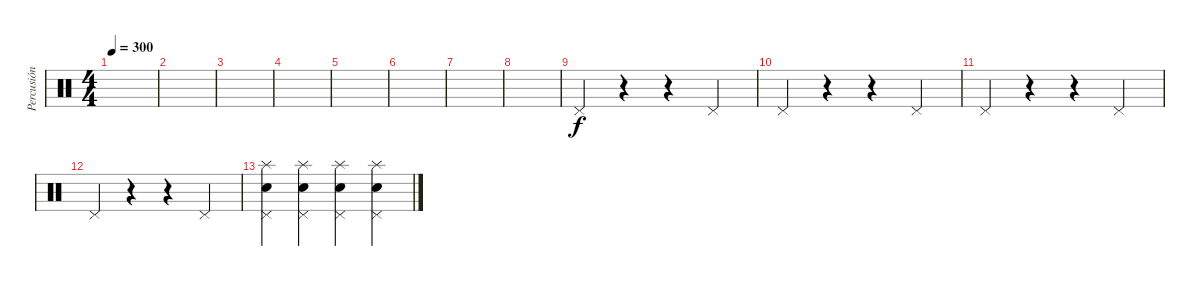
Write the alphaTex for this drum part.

\track ("Percusión" "Percusión") {instrument percussion}
\staff {score}
\articulation defaults
\ts (4 4)
\tempo 300
\clef neutral
\ks c
|
|
|
|
|
|
|
|
"Pedal Hi-Hat (hit)".4 r.4 r.4 "Pedal Hi-Hat (hit)".4 |
"Pedal Hi-Hat (hit)".4 r.4 r.4 "Pedal Hi-Hat (hit)".4 |
"Pedal Hi-Hat (hit)".4 r.4 r.4 "Pedal Hi-Hat (hit)".4 |
"Pedal Hi-Hat (hit)".4 r.4 r.4 "Pedal Hi-Hat (hit)".4 |
("Electric Snare (hit)" "Pedal Hi-Hat (hit)" "Splash (hit)").4 ("Pedal Hi-Hat (hit)" "Electric Snare (hit)" "Splash (hit)").4 ("Pedal Hi-Hat (hit)" "Electric Snare (hit)" "Splash (hit)").4 ("Pedal Hi-Hat (hit)" "Electric Snare (hit)" "Splash (hit)").4
